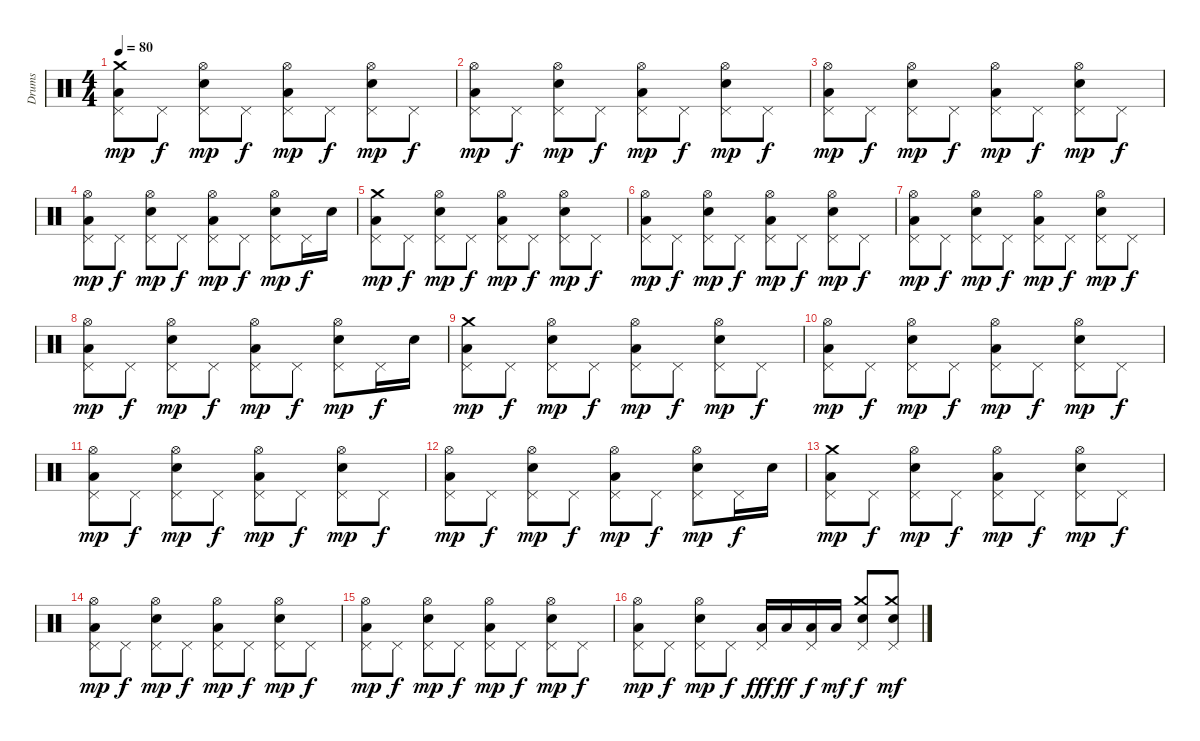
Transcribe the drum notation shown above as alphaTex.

\track ("Drums" "Drums") {instrument percussion}
\staff {score}
\articulation defaults
\ts (4 4)
\tempo 80
\clef neutral
\ks c
("Low Floor Tom (hit)" "Pedal Hi-Hat (hit)" "Crash medium (hit)").8{dy mp} "Pedal Hi-Hat (hit)".8{dy f} ("Electric Snare (hit)" "Pedal Hi-Hat (hit)" "Hi-Hat (open)").8{dy mp} "Pedal Hi-Hat (hit)".8{dy f} ("Low Floor Tom (hit)" "Pedal Hi-Hat (hit)" "Hi-Hat (open)").8{dy mp} "Pedal Hi-Hat (hit)".8{dy f} ("Electric Snare (hit)" "Pedal Hi-Hat (hit)" "Hi-Hat (open)").8{dy mp} "Pedal Hi-Hat (hit)".8{dy f} |
("Low Floor Tom (hit)" "Pedal Hi-Hat (hit)" "Hi-Hat (open)").8{dy mp} "Pedal Hi-Hat (hit)".8{dy f} ("Electric Snare (hit)" "Pedal Hi-Hat (hit)" "Hi-Hat (open)").8{dy mp} "Pedal Hi-Hat (hit)".8{dy f} ("Low Floor Tom (hit)" "Pedal Hi-Hat (hit)" "Hi-Hat (open)").8{dy mp} "Pedal Hi-Hat (hit)".8{dy f} ("Electric Snare (hit)" "Pedal Hi-Hat (hit)" "Hi-Hat (open)").8{dy mp} "Pedal Hi-Hat (hit)".8{dy f} |
("Low Floor Tom (hit)" "Pedal Hi-Hat (hit)" "Hi-Hat (open)").8{dy mp} "Pedal Hi-Hat (hit)".8{dy f} ("Electric Snare (hit)" "Pedal Hi-Hat (hit)" "Hi-Hat (open)").8{dy mp} "Pedal Hi-Hat (hit)".8{dy f} ("Low Floor Tom (hit)" "Pedal Hi-Hat (hit)" "Hi-Hat (open)").8{dy mp} "Pedal Hi-Hat (hit)".8{dy f} ("Electric Snare (hit)" "Pedal Hi-Hat (hit)" "Hi-Hat (open)").8{dy mp} "Pedal Hi-Hat (hit)".8{dy f} |
("Low Floor Tom (hit)" "Pedal Hi-Hat (hit)" "Hi-Hat (open)").8{dy mp} "Pedal Hi-Hat (hit)".8{dy f} ("Electric Snare (hit)" "Pedal Hi-Hat (hit)" "Hi-Hat (open)").8{dy mp} "Pedal Hi-Hat (hit)".8{dy f} ("Low Floor Tom (hit)" "Pedal Hi-Hat (hit)" "Hi-Hat (open)").8{dy mp} "Pedal Hi-Hat (hit)".8{dy f} ("Electric Snare (hit)" "Pedal Hi-Hat (hit)" "Hi-Hat (open)").8{dy mp} "Pedal Hi-Hat (hit)".16{dy f} "Electric Snare (hit)".16 |
("Low Floor Tom (hit)" "Pedal Hi-Hat (hit)" "Crash medium (hit)").8{dy mp} "Pedal Hi-Hat (hit)".8{dy f} ("Electric Snare (hit)" "Pedal Hi-Hat (hit)" "Hi-Hat (open)").8{dy mp} "Pedal Hi-Hat (hit)".8{dy f} ("Low Floor Tom (hit)" "Pedal Hi-Hat (hit)" "Hi-Hat (open)").8{dy mp} "Pedal Hi-Hat (hit)".8{dy f} ("Electric Snare (hit)" "Pedal Hi-Hat (hit)" "Hi-Hat (open)").8{dy mp} "Pedal Hi-Hat (hit)".8{dy f} |
("Low Floor Tom (hit)" "Pedal Hi-Hat (hit)" "Hi-Hat (open)").8{dy mp} "Pedal Hi-Hat (hit)".8{dy f} ("Electric Snare (hit)" "Pedal Hi-Hat (hit)" "Hi-Hat (open)").8{dy mp} "Pedal Hi-Hat (hit)".8{dy f} ("Low Floor Tom (hit)" "Pedal Hi-Hat (hit)" "Hi-Hat (open)").8{dy mp} "Pedal Hi-Hat (hit)".8{dy f} ("Electric Snare (hit)" "Pedal Hi-Hat (hit)" "Hi-Hat (open)").8{dy mp} "Pedal Hi-Hat (hit)".8{dy f} |
("Low Floor Tom (hit)" "Pedal Hi-Hat (hit)" "Hi-Hat (open)").8{dy mp} "Pedal Hi-Hat (hit)".8{dy f} ("Electric Snare (hit)" "Pedal Hi-Hat (hit)" "Hi-Hat (open)").8{dy mp} "Pedal Hi-Hat (hit)".8{dy f} ("Low Floor Tom (hit)" "Pedal Hi-Hat (hit)" "Hi-Hat (open)").8{dy mp} "Pedal Hi-Hat (hit)".8{dy f} ("Electric Snare (hit)" "Pedal Hi-Hat (hit)" "Hi-Hat (open)").8{dy mp} "Pedal Hi-Hat (hit)".8{dy f} |
("Low Floor Tom (hit)" "Pedal Hi-Hat (hit)" "Hi-Hat (open)").8{dy mp} "Pedal Hi-Hat (hit)".8{dy f} ("Electric Snare (hit)" "Pedal Hi-Hat (hit)" "Hi-Hat (open)").8{dy mp} "Pedal Hi-Hat (hit)".8{dy f} ("Low Floor Tom (hit)" "Pedal Hi-Hat (hit)" "Hi-Hat (open)").8{dy mp} "Pedal Hi-Hat (hit)".8{dy f} ("Electric Snare (hit)" "Pedal Hi-Hat (hit)" "Hi-Hat (open)").8{dy mp} "Pedal Hi-Hat (hit)".16{dy f} "Electric Snare (hit)".16 |
("Low Floor Tom (hit)" "Pedal Hi-Hat (hit)" "Crash medium (hit)").8{dy mp} "Pedal Hi-Hat (hit)".8{dy f} ("Electric Snare (hit)" "Pedal Hi-Hat (hit)" "Hi-Hat (open)").8{dy mp} "Pedal Hi-Hat (hit)".8{dy f} ("Low Floor Tom (hit)" "Pedal Hi-Hat (hit)" "Hi-Hat (open)").8{dy mp} "Pedal Hi-Hat (hit)".8{dy f} ("Electric Snare (hit)" "Pedal Hi-Hat (hit)" "Hi-Hat (open)").8{dy mp} "Pedal Hi-Hat (hit)".8{dy f} |
("Low Floor Tom (hit)" "Pedal Hi-Hat (hit)" "Hi-Hat (open)").8{dy mp} "Pedal Hi-Hat (hit)".8{dy f} ("Electric Snare (hit)" "Pedal Hi-Hat (hit)" "Hi-Hat (open)").8{dy mp} "Pedal Hi-Hat (hit)".8{dy f} ("Low Floor Tom (hit)" "Pedal Hi-Hat (hit)" "Hi-Hat (open)").8{dy mp} "Pedal Hi-Hat (hit)".8{dy f} ("Electric Snare (hit)" "Pedal Hi-Hat (hit)" "Hi-Hat (open)").8{dy mp} "Pedal Hi-Hat (hit)".8{dy f} |
("Low Floor Tom (hit)" "Pedal Hi-Hat (hit)" "Hi-Hat (open)").8{dy mp} "Pedal Hi-Hat (hit)".8{dy f} ("Electric Snare (hit)" "Pedal Hi-Hat (hit)" "Hi-Hat (open)").8{dy mp} "Pedal Hi-Hat (hit)".8{dy f} ("Low Floor Tom (hit)" "Pedal Hi-Hat (hit)" "Hi-Hat (open)").8{dy mp} "Pedal Hi-Hat (hit)".8{dy f} ("Electric Snare (hit)" "Pedal Hi-Hat (hit)" "Hi-Hat (open)").8{dy mp} "Pedal Hi-Hat (hit)".8{dy f} |
("Low Floor Tom (hit)" "Pedal Hi-Hat (hit)" "Hi-Hat (open)").8{dy mp} "Pedal Hi-Hat (hit)".8{dy f} ("Electric Snare (hit)" "Pedal Hi-Hat (hit)" "Hi-Hat (open)").8{dy mp} "Pedal Hi-Hat (hit)".8{dy f} ("Low Floor Tom (hit)" "Pedal Hi-Hat (hit)" "Hi-Hat (open)").8{dy mp} "Pedal Hi-Hat (hit)".8{dy f} ("Electric Snare (hit)" "Pedal Hi-Hat (hit)" "Hi-Hat (open)").8{dy mp} "Pedal Hi-Hat (hit)".16{dy f} "Electric Snare (hit)".16 |
("Low Floor Tom (hit)" "Pedal Hi-Hat (hit)" "Crash medium (hit)").8{dy mp} "Pedal Hi-Hat (hit)".8{dy f} ("Electric Snare (hit)" "Pedal Hi-Hat (hit)" "Hi-Hat (open)").8{dy mp} "Pedal Hi-Hat (hit)".8{dy f} ("Low Floor Tom (hit)" "Pedal Hi-Hat (hit)" "Hi-Hat (open)").8{dy mp} "Pedal Hi-Hat (hit)".8{dy f} ("Electric Snare (hit)" "Pedal Hi-Hat (hit)" "Hi-Hat (open)").8{dy mp} "Pedal Hi-Hat (hit)".8{dy f} |
("Low Floor Tom (hit)" "Pedal Hi-Hat (hit)" "Hi-Hat (open)").8{dy mp} "Pedal Hi-Hat (hit)".8{dy f} ("Electric Snare (hit)" "Pedal Hi-Hat (hit)" "Hi-Hat (open)").8{dy mp} "Pedal Hi-Hat (hit)".8{dy f} ("Low Floor Tom (hit)" "Pedal Hi-Hat (hit)" "Hi-Hat (open)").8{dy mp} "Pedal Hi-Hat (hit)".8{dy f} ("Electric Snare (hit)" "Pedal Hi-Hat (hit)" "Hi-Hat (open)").8{dy mp} "Pedal Hi-Hat (hit)".8{dy f} |
("Low Floor Tom (hit)" "Pedal Hi-Hat (hit)" "Hi-Hat (open)").8{dy mp} "Pedal Hi-Hat (hit)".8{dy f} ("Electric Snare (hit)" "Pedal Hi-Hat (hit)" "Hi-Hat (open)").8{dy mp} "Pedal Hi-Hat (hit)".8{dy f} ("Low Floor Tom (hit)" "Pedal Hi-Hat (hit)" "Hi-Hat (open)").8{dy mp} "Pedal Hi-Hat (hit)".8{dy f} ("Electric Snare (hit)" "Pedal Hi-Hat (hit)" "Hi-Hat (open)").8{dy mp} "Pedal Hi-Hat (hit)".8{dy f} |
("Low Floor Tom (hit)" "Pedal Hi-Hat (hit)" "Hi-Hat (open)").8{dy mp} "Pedal Hi-Hat (hit)".8{dy f} ("Electric Snare (hit)" "Pedal Hi-Hat (hit)" "Hi-Hat (open)").8{dy mp} "Pedal Hi-Hat (hit)".8{dy f} ("Low Floor Tom (hit)" "Pedal Hi-Hat (hit)").16{dy fff} "Low Floor Tom (hit)".16{dy ff} ("Low Floor Tom (hit)" "Pedal Hi-Hat (hit)").16{dy f} "Low Floor Tom (hit)".16{dy mf} ("Electric Snare (hit)" "Pedal Hi-Hat (hit)" "Crash medium (hit)").8{dy f} ("Electric Snare (hit)" "Pedal Hi-Hat (hit)" "Crash medium (hit)").8{dy mf}
